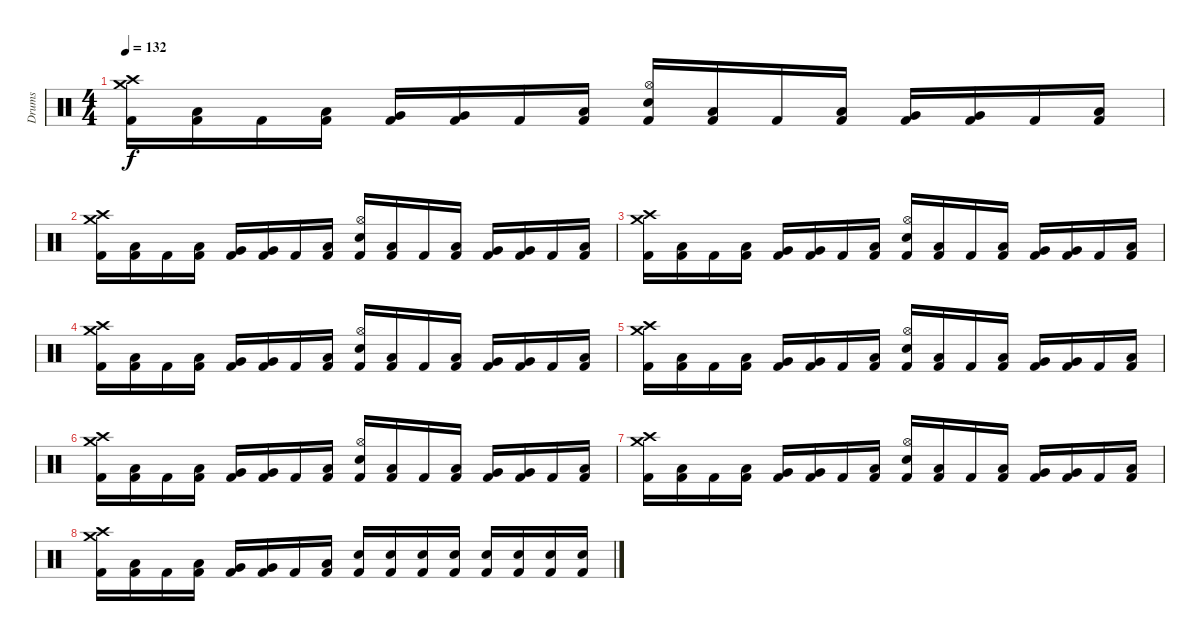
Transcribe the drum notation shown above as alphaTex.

\track ("Drums" "Drums") {instrument percussion}
\staff {score}
\articulation defaults
\ts (4 4)
\tempo 132
\clef neutral
\ks c
("Crash medium (hit)" "Crash high (hit)" "Kick (hit) 2").16{dy f} ("Low Tom (hit)" "Kick (hit) 2").16 "Kick (hit) 2".16 ("Low Tom (hit)" "Kick (hit) 2").16 ("Very Low Tom (hit)" "Kick (hit) 2").16 ("Very Low Tom (hit)" "Kick (hit) 2").16 "Kick (hit) 2".16 ("Low Floor Tom (hit)" "Kick (hit) 2").16 ("Hi-Hat (open)" "Electric Snare (hit)" "Kick (hit) 2").16 ("Low Tom (hit)" "Kick (hit) 2").16 "Kick (hit) 2".16 ("Low Tom (hit)" "Kick (hit) 2").16 ("Very Low Tom (hit)" "Kick (hit) 2").16 ("Very Low Tom (hit)" "Kick (hit) 2").16 "Kick (hit) 2".16 ("Low Floor Tom (hit)" "Kick (hit) 2").16 |
("Crash medium (hit)" "Crash high (hit)" "Kick (hit) 2").16 ("Low Tom (hit)" "Kick (hit) 2").16 "Kick (hit) 2".16 ("Low Tom (hit)" "Kick (hit) 2").16 ("Very Low Tom (hit)" "Kick (hit) 2").16 ("Very Low Tom (hit)" "Kick (hit) 2").16 "Kick (hit) 2".16 ("Low Floor Tom (hit)" "Kick (hit) 2").16 ("Hi-Hat (open)" "Electric Snare (hit)" "Kick (hit) 2").16 ("Low Tom (hit)" "Kick (hit) 2").16 "Kick (hit) 2".16 ("Low Tom (hit)" "Kick (hit) 2").16 ("Very Low Tom (hit)" "Kick (hit) 2").16 ("Very Low Tom (hit)" "Kick (hit) 2").16 "Kick (hit) 2".16 ("Low Floor Tom (hit)" "Kick (hit) 2").16 |
("Crash medium (hit)" "Crash high (hit)" "Kick (hit) 2").16 ("Low Tom (hit)" "Kick (hit) 2").16 "Kick (hit) 2".16 ("Low Tom (hit)" "Kick (hit) 2").16 ("Very Low Tom (hit)" "Kick (hit) 2").16 ("Very Low Tom (hit)" "Kick (hit) 2").16 "Kick (hit) 2".16 ("Low Floor Tom (hit)" "Kick (hit) 2").16 ("Hi-Hat (open)" "Electric Snare (hit)" "Kick (hit) 2").16 ("Low Tom (hit)" "Kick (hit) 2").16 "Kick (hit) 2".16 ("Low Tom (hit)" "Kick (hit) 2").16 ("Very Low Tom (hit)" "Kick (hit) 2").16 ("Very Low Tom (hit)" "Kick (hit) 2").16 "Kick (hit) 2".16 ("Low Floor Tom (hit)" "Kick (hit) 2").16 |
("Crash medium (hit)" "Crash high (hit)" "Kick (hit) 2").16 ("Low Tom (hit)" "Kick (hit) 2").16 "Kick (hit) 2".16 ("Low Tom (hit)" "Kick (hit) 2").16 ("Very Low Tom (hit)" "Kick (hit) 2").16 ("Very Low Tom (hit)" "Kick (hit) 2").16 "Kick (hit) 2".16 ("Low Floor Tom (hit)" "Kick (hit) 2").16 ("Hi-Hat (open)" "Electric Snare (hit)" "Kick (hit) 2").16 ("Low Tom (hit)" "Kick (hit) 2").16 "Kick (hit) 2".16 ("Low Tom (hit)" "Kick (hit) 2").16 ("Very Low Tom (hit)" "Kick (hit) 2").16 ("Very Low Tom (hit)" "Kick (hit) 2").16 "Kick (hit) 2".16 ("Low Floor Tom (hit)" "Kick (hit) 2").16 |
("Crash medium (hit)" "Crash high (hit)" "Kick (hit) 2").16 ("Low Tom (hit)" "Kick (hit) 2").16 "Kick (hit) 2".16 ("Low Tom (hit)" "Kick (hit) 2").16 ("Very Low Tom (hit)" "Kick (hit) 2").16 ("Very Low Tom (hit)" "Kick (hit) 2").16 "Kick (hit) 2".16 ("Low Floor Tom (hit)" "Kick (hit) 2").16 ("Hi-Hat (open)" "Electric Snare (hit)" "Kick (hit) 2").16 ("Low Tom (hit)" "Kick (hit) 2").16 "Kick (hit) 2".16 ("Low Tom (hit)" "Kick (hit) 2").16 ("Very Low Tom (hit)" "Kick (hit) 2").16 ("Very Low Tom (hit)" "Kick (hit) 2").16 "Kick (hit) 2".16 ("Low Floor Tom (hit)" "Kick (hit) 2").16 |
("Crash medium (hit)" "Crash high (hit)" "Kick (hit) 2").16 ("Low Tom (hit)" "Kick (hit) 2").16 "Kick (hit) 2".16 ("Low Tom (hit)" "Kick (hit) 2").16 ("Very Low Tom (hit)" "Kick (hit) 2").16 ("Very Low Tom (hit)" "Kick (hit) 2").16 "Kick (hit) 2".16 ("Low Floor Tom (hit)" "Kick (hit) 2").16 ("Hi-Hat (open)" "Electric Snare (hit)" "Kick (hit) 2").16 ("Low Tom (hit)" "Kick (hit) 2").16 "Kick (hit) 2".16 ("Low Tom (hit)" "Kick (hit) 2").16 ("Very Low Tom (hit)" "Kick (hit) 2").16 ("Very Low Tom (hit)" "Kick (hit) 2").16 "Kick (hit) 2".16 ("Low Floor Tom (hit)" "Kick (hit) 2").16 |
("Crash medium (hit)" "Crash high (hit)" "Kick (hit) 2").16 ("Low Tom (hit)" "Kick (hit) 2").16 "Kick (hit) 2".16 ("Low Tom (hit)" "Kick (hit) 2").16 ("Very Low Tom (hit)" "Kick (hit) 2").16 ("Very Low Tom (hit)" "Kick (hit) 2").16 "Kick (hit) 2".16 ("Low Floor Tom (hit)" "Kick (hit) 2").16 ("Hi-Hat (open)" "Electric Snare (hit)" "Kick (hit) 2").16 ("Low Tom (hit)" "Kick (hit) 2").16 "Kick (hit) 2".16 ("Low Tom (hit)" "Kick (hit) 2").16 ("Very Low Tom (hit)" "Kick (hit) 2").16 ("Very Low Tom (hit)" "Kick (hit) 2").16 "Kick (hit) 2".16 ("Low Floor Tom (hit)" "Kick (hit) 2").16 |
("Crash medium (hit)" "Crash high (hit)" "Kick (hit) 2").16 ("Low Tom (hit)" "Kick (hit) 2").16 "Kick (hit) 2".16 ("Low Tom (hit)" "Kick (hit) 2").16 ("Very Low Tom (hit)" "Kick (hit) 2").16 ("Very Low Tom (hit)" "Kick (hit) 2").16 "Kick (hit) 2".16 ("Low Floor Tom (hit)" "Kick (hit) 2").16 ("Electric Snare (hit)" "Kick (hit) 2").16 ("Electric Snare (hit)" "Kick (hit) 2").16 ("Electric Snare (hit)" "Kick (hit) 2").16 ("Electric Snare (hit)" "Kick (hit) 2").16 ("Electric Snare (hit)" "Kick (hit) 2").16 ("Electric Snare (hit)" "Kick (hit) 2").16 ("Electric Snare (hit)" "Kick (hit) 2").16 ("Electric Snare (hit)" "Kick (hit) 2").16
